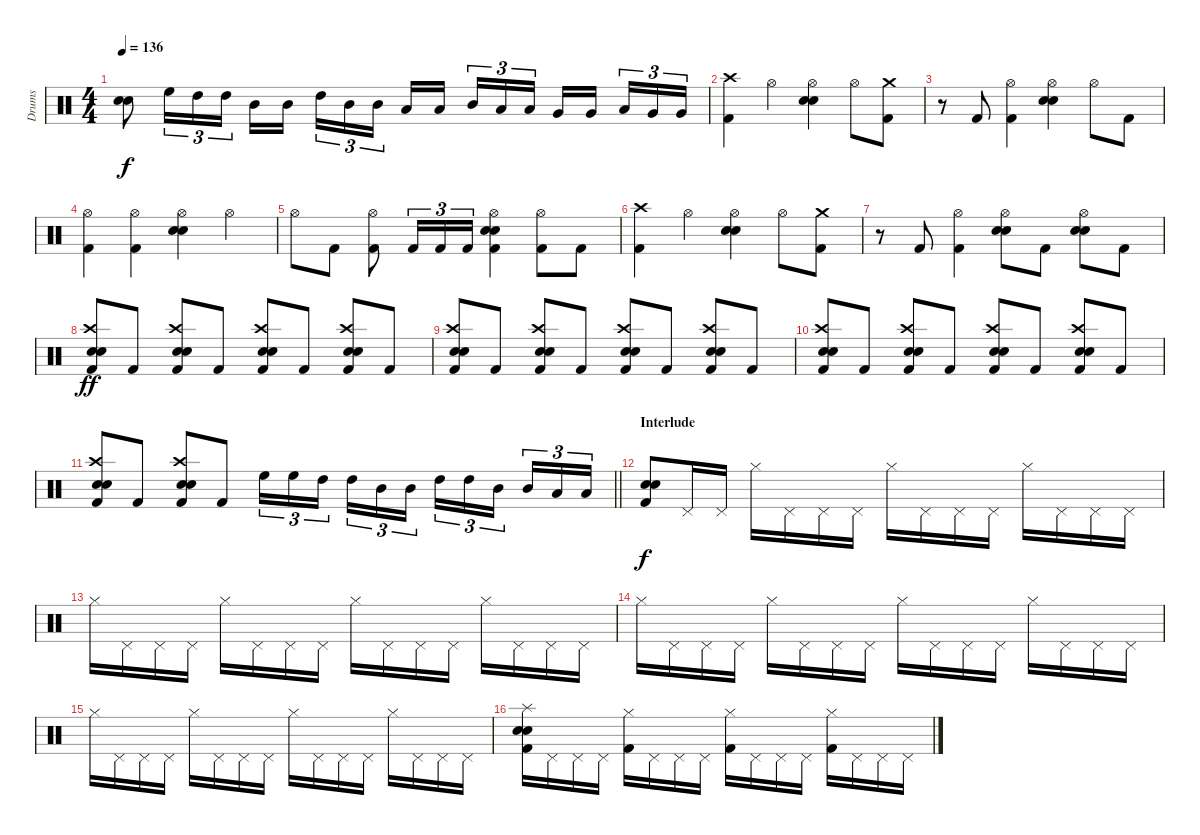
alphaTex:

\track ("Drums" "Drums") {instrument percussion}
\staff {score}
\articulation defaults
\ts (4 4)
\tempo 136
\clef neutral
\ks c
("Electric Snare (hit)" "Snare (hit) 2").8{dy f} "High Floor Tom (hit)".16{tu (3 2)} "High Tom (hit)".16{tu (3 2)} "High Tom (hit)".16{tu (3 2)} "Mid Tom (hit)".16 "Mid Tom (hit)".16{beam splitsecondary} "High Tom (hit)".16{tu (3 2)} "Mid Tom (hit)".16{tu (3 2)} "Mid Tom (hit)".16{tu (3 2)} "Low Tom (hit)".16 "Low Tom (hit)".16{beam splitsecondary} "Mid Tom (hit)".16{tu (3 2)} "Low Tom (hit)".16{tu (3 2)} "Low Tom (hit)".16{tu (3 2)} "Very Low Tom (hit)".16 "Very Low Tom (hit)".16{beam splitsecondary} "Low Tom (hit)".16{tu (3 2)} "Very Low Tom (hit)".16{tu (3 2)} "Very Low Tom (hit)".16{tu (3 2)} |
("Crash high (hit)" "Kick (hit) 2").4 "Hi-Hat (open)".4 ("Hi-Hat (open)" "Electric Snare (hit)" "Snare (hit) 2").4 "Hi-Hat (open)".8 ("Crash medium (hit)" "Kick (hit) 2").8 |
r.8 "Kick (hit) 2".8 ("Hi-Hat (open)" "Kick (hit) 2").4 ("Hi-Hat (open)" "Electric Snare (hit)" "Snare (hit) 2").4 "Hi-Hat (open)".8 "Kick (hit) 2".8 |
("Hi-Hat (open)" "Kick (hit) 2").4 ("Hi-Hat (open)" "Kick (hit) 2").4 ("Hi-Hat (open)" "Electric Snare (hit)" "Snare (hit) 2").4 "Hi-Hat (open)".4 |
"Hi-Hat (open)".8 "Kick (hit) 2".8 ("Hi-Hat (open)" "Kick (hit) 2").8 "Kick (hit) 2".16{tu (3 2)} "Kick (hit) 2".16{tu (3 2)} "Kick (hit) 2".16{tu (3 2)} ("Hi-Hat (open)" "Electric Snare (hit)" "Snare (hit) 2" "Kick (hit) 2").4 ("Hi-Hat (open)" "Kick (hit) 2").8 "Kick (hit) 2".8 |
("Crash high (hit)" "Kick (hit) 2").4 "Hi-Hat (open)".4 ("Hi-Hat (open)" "Electric Snare (hit)" "Snare (hit) 2").4 "Hi-Hat (open)".8 ("Crash medium (hit)" "Kick (hit) 2").8 |
r.8 "Kick (hit) 2".8 ("Hi-Hat (open)" "Kick (hit) 2").4 ("Hi-Hat (open)" "Electric Snare (hit)" "Snare (hit) 2").8 "Kick (hit) 2".8 ("Hi-Hat (open)" "Electric Snare (hit)" "Snare (hit) 2").8 "Kick (hit) 2".8 |
("Crash high (hit)" "Electric Snare (hit)" "Snare (hit) 2" "Kick (hit) 2").8{dy ff} "Kick (hit) 2".8 ("Crash high (hit)" "Electric Snare (hit)" "Snare (hit) 2" "Kick (hit) 2").8 "Kick (hit) 2".8 ("Crash high (hit)" "Electric Snare (hit)" "Snare (hit) 2" "Kick (hit) 2").8 "Kick (hit) 2".8 ("Crash high (hit)" "Electric Snare (hit)" "Snare (hit) 2" "Kick (hit) 2").8 "Kick (hit) 2".8 |
("Crash high (hit)" "Electric Snare (hit)" "Snare (hit) 2" "Kick (hit) 2").8 "Kick (hit) 2".8 ("Crash high (hit)" "Electric Snare (hit)" "Snare (hit) 2" "Kick (hit) 2").8 "Kick (hit) 2".8 ("Crash high (hit)" "Electric Snare (hit)" "Snare (hit) 2" "Kick (hit) 2").8 "Kick (hit) 2".8 ("Crash high (hit)" "Electric Snare (hit)" "Snare (hit) 2" "Kick (hit) 2").8 "Kick (hit) 2".8 |
("Crash high (hit)" "Electric Snare (hit)" "Snare (hit) 2" "Kick (hit) 2").8 "Kick (hit) 2".8 ("Crash high (hit)" "Electric Snare (hit)" "Snare (hit) 2" "Kick (hit) 2").8 "Kick (hit) 2".8 ("Crash high (hit)" "Electric Snare (hit)" "Snare (hit) 2" "Kick (hit) 2").8 "Kick (hit) 2".8 ("Crash high (hit)" "Electric Snare (hit)" "Snare (hit) 2" "Kick (hit) 2").8 "Kick (hit) 2".8 |
\barLineRight lightlight
("Crash high (hit)" "Electric Snare (hit)" "Snare (hit) 2" "Kick (hit) 2").8 "Kick (hit) 2".8 ("Crash high (hit)" "Electric Snare (hit)" "Snare (hit) 2" "Kick (hit) 2").8 "Kick (hit) 2".8 "High Floor Tom (hit)".16{tu (3 2)} "High Floor Tom (hit)".16{tu (3 2)} "High Tom (hit)".16{tu (3 2) beam splitsecondary} "High Tom (hit)".16{tu (3 2)} "Mid Tom (hit)".16{tu (3 2)} "Mid Tom (hit)".16{tu (3 2)} "High Tom (hit)".16{tu (3 2)} "High Tom (hit)".16{tu (3 2)} "Mid Tom (hit)".16{tu (3 2) beam splitsecondary} "Mid Tom (hit)".16{tu (3 2)} "Low Tom (hit)".16{tu (3 2)} "Low Tom (hit)".16{tu (3 2)} |
\section ("" "Interlude")
("Electric Snare (hit)" "Snare (hit) 2" "Kick (hit) 2").8{dy f} "Pedal Hi-Hat (hit)".16 "Pedal Hi-Hat (hit)".16 "Hi-Hat (closed)".16 "Pedal Hi-Hat (hit)".16 "Pedal Hi-Hat (hit)".16 "Pedal Hi-Hat (hit)".16 "Hi-Hat (closed)".16 "Pedal Hi-Hat (hit)".16 "Pedal Hi-Hat (hit)".16 "Pedal Hi-Hat (hit)".16 "Hi-Hat (closed)".16 "Pedal Hi-Hat (hit)".16 "Pedal Hi-Hat (hit)".16 "Pedal Hi-Hat (hit)".16 |
"Hi-Hat (closed)".16 "Pedal Hi-Hat (hit)".16 "Pedal Hi-Hat (hit)".16 "Pedal Hi-Hat (hit)".16 "Hi-Hat (closed)".16 "Pedal Hi-Hat (hit)".16 "Pedal Hi-Hat (hit)".16 "Pedal Hi-Hat (hit)".16 "Hi-Hat (closed)".16 "Pedal Hi-Hat (hit)".16 "Pedal Hi-Hat (hit)".16 "Pedal Hi-Hat (hit)".16 "Hi-Hat (closed)".16 "Pedal Hi-Hat (hit)".16 "Pedal Hi-Hat (hit)".16 "Pedal Hi-Hat (hit)".16 |
"Hi-Hat (closed)".16 "Pedal Hi-Hat (hit)".16 "Pedal Hi-Hat (hit)".16 "Pedal Hi-Hat (hit)".16 "Hi-Hat (closed)".16 "Pedal Hi-Hat (hit)".16 "Pedal Hi-Hat (hit)".16 "Pedal Hi-Hat (hit)".16 "Hi-Hat (closed)".16 "Pedal Hi-Hat (hit)".16 "Pedal Hi-Hat (hit)".16 "Pedal Hi-Hat (hit)".16 "Hi-Hat (closed)".16 "Pedal Hi-Hat (hit)".16 "Pedal Hi-Hat (hit)".16 "Pedal Hi-Hat (hit)".16 |
"Hi-Hat (closed)".16 "Pedal Hi-Hat (hit)".16 "Pedal Hi-Hat (hit)".16 "Pedal Hi-Hat (hit)".16 "Hi-Hat (closed)".16 "Pedal Hi-Hat (hit)".16 "Pedal Hi-Hat (hit)".16 "Pedal Hi-Hat (hit)".16 "Hi-Hat (closed)".16 "Pedal Hi-Hat (hit)".16 "Pedal Hi-Hat (hit)".16 "Pedal Hi-Hat (hit)".16 "Hi-Hat (closed)".16 "Pedal Hi-Hat (hit)".16 "Pedal Hi-Hat (hit)".16 "Pedal Hi-Hat (hit)".16 |
("Splash (hit)" "Electric Snare (hit)" "Snare (hit) 2" "Kick (hit) 2").16 "Pedal Hi-Hat (hit)".16 "Pedal Hi-Hat (hit)".16 "Pedal Hi-Hat (hit)".16 ("Hi-Hat (closed)" "Kick (hit) 2").16 "Pedal Hi-Hat (hit)".16 "Pedal Hi-Hat (hit)".16 "Pedal Hi-Hat (hit)".16 ("Hi-Hat (closed)" "Kick (hit) 2").16 "Pedal Hi-Hat (hit)".16 "Pedal Hi-Hat (hit)".16 "Pedal Hi-Hat (hit)".16 ("Hi-Hat (closed)" "Kick (hit) 2").16 "Pedal Hi-Hat (hit)".16 "Pedal Hi-Hat (hit)".16 "Pedal Hi-Hat (hit)".16
